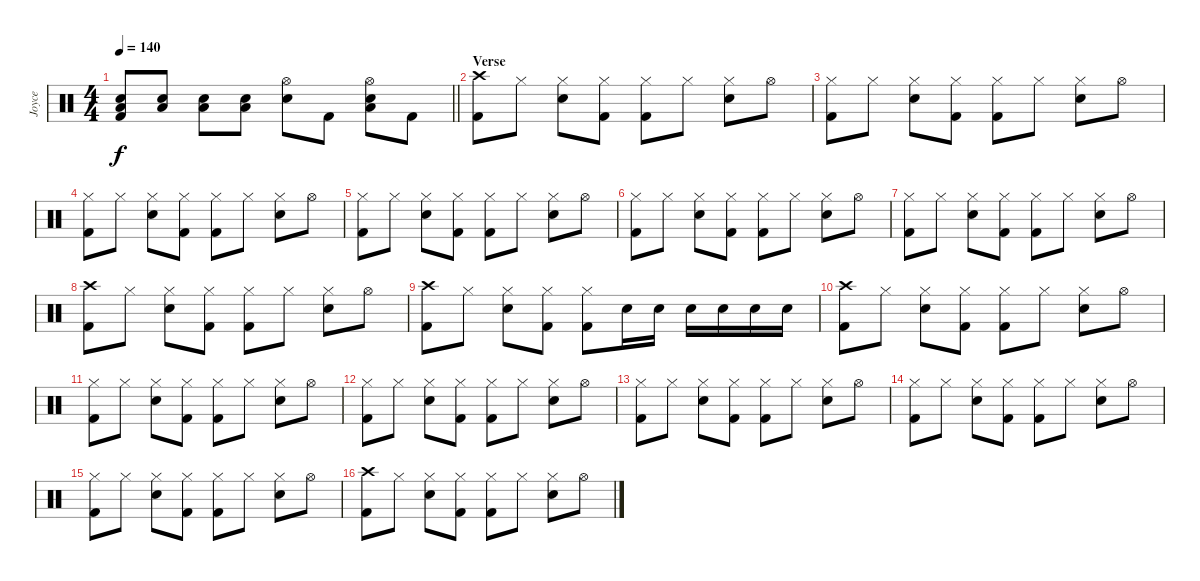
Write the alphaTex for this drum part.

\track ("Joyce" "Joyce") {instrument percussion}
\staff {score}
\articulation defaults
\ts (4 4)
\tempo 140
\clef neutral
\barLineRight lightlight
\ks c
("Low Tom (hit)" "Snare (hit) 2" "Kick (hit) 2").8{dy f} ("Low Tom (hit)" "Snare (hit) 2").8 ("Low Tom (hit)" "Snare (hit) 2").8 ("Low Tom (hit)" "Snare (hit) 2").8 ("Hi-Hat (open)" "Snare (hit) 2").8 "Kick (hit) 2".8 ("Hi-Hat (open)" "Low Tom (hit)" "Snare (hit) 2").8 "Kick (hit) 2".8 |
\section ("" "Verse")
("Crash high (hit)" "Kick (hit) 2").8 "Hi-Hat (closed)".8 ("Hi-Hat (closed)" "Snare (hit) 2").8 ("Hi-Hat (closed)" "Kick (hit) 2").8 ("Hi-Hat (closed)" "Kick (hit) 2").8 "Hi-Hat (closed)".8 ("Hi-Hat (closed)" "Snare (hit) 2").8 "Hi-Hat (open)".8 |
("Hi-Hat (closed)" "Kick (hit) 2").8 "Hi-Hat (closed)".8 ("Hi-Hat (closed)" "Snare (hit) 2").8 ("Hi-Hat (closed)" "Kick (hit) 2").8 ("Hi-Hat (closed)" "Kick (hit) 2").8 "Hi-Hat (closed)".8 ("Hi-Hat (closed)" "Snare (hit) 2").8 "Hi-Hat (open)".8 |
("Hi-Hat (closed)" "Kick (hit) 2").8 "Hi-Hat (closed)".8 ("Hi-Hat (closed)" "Snare (hit) 2").8 ("Hi-Hat (closed)" "Kick (hit) 2").8 ("Hi-Hat (closed)" "Kick (hit) 2").8 "Hi-Hat (closed)".8 ("Hi-Hat (closed)" "Snare (hit) 2").8 "Hi-Hat (open)".8 |
("Hi-Hat (closed)" "Kick (hit) 2").8 "Hi-Hat (closed)".8 ("Hi-Hat (closed)" "Snare (hit) 2").8 ("Hi-Hat (closed)" "Kick (hit) 2").8 ("Hi-Hat (closed)" "Kick (hit) 2").8 "Hi-Hat (closed)".8 ("Hi-Hat (closed)" "Snare (hit) 2").8 "Hi-Hat (open)".8 |
("Hi-Hat (closed)" "Kick (hit) 2").8 "Hi-Hat (closed)".8 ("Hi-Hat (closed)" "Snare (hit) 2").8 ("Hi-Hat (closed)" "Kick (hit) 2").8 ("Hi-Hat (closed)" "Kick (hit) 2").8 "Hi-Hat (closed)".8 ("Hi-Hat (closed)" "Snare (hit) 2").8 "Hi-Hat (open)".8 |
("Hi-Hat (closed)" "Kick (hit) 2").8 "Hi-Hat (closed)".8 ("Hi-Hat (closed)" "Snare (hit) 2").8 ("Hi-Hat (closed)" "Kick (hit) 2").8 ("Hi-Hat (closed)" "Kick (hit) 2").8 "Hi-Hat (closed)".8 ("Hi-Hat (closed)" "Snare (hit) 2").8 "Hi-Hat (open)".8 |
("Crash high (hit)" "Kick (hit) 2").8 "Hi-Hat (closed)".8 ("Hi-Hat (closed)" "Snare (hit) 2").8 ("Hi-Hat (closed)" "Kick (hit) 2").8 ("Hi-Hat (closed)" "Kick (hit) 2").8 "Hi-Hat (closed)".8 ("Hi-Hat (closed)" "Snare (hit) 2").8 "Hi-Hat (open)".8 |
("Crash high (hit)" "Kick (hit) 2").8 "Hi-Hat (closed)".8 ("Hi-Hat (closed)" "Snare (hit) 2").8 ("Hi-Hat (closed)" "Kick (hit) 2").8 ("Hi-Hat (closed)" "Kick (hit) 2").8 "Snare (hit) 2".16 "Snare (hit) 2".16 "Snare (hit) 2".16 "Snare (hit) 2".16 "Snare (hit) 2".16 "Snare (hit) 2".16 |
("Crash high (hit)" "Kick (hit) 2").8 "Hi-Hat (closed)".8 ("Hi-Hat (closed)" "Snare (hit) 2").8 ("Hi-Hat (closed)" "Kick (hit) 2").8 ("Hi-Hat (closed)" "Kick (hit) 2").8 "Hi-Hat (closed)".8 ("Hi-Hat (closed)" "Snare (hit) 2").8 "Hi-Hat (open)".8 |
("Hi-Hat (closed)" "Kick (hit) 2").8 "Hi-Hat (closed)".8 ("Hi-Hat (closed)" "Snare (hit) 2").8 ("Hi-Hat (closed)" "Kick (hit) 2").8 ("Hi-Hat (closed)" "Kick (hit) 2").8 "Hi-Hat (closed)".8 ("Hi-Hat (closed)" "Snare (hit) 2").8 "Hi-Hat (open)".8 |
("Hi-Hat (closed)" "Kick (hit) 2").8 "Hi-Hat (closed)".8 ("Hi-Hat (closed)" "Snare (hit) 2").8 ("Hi-Hat (closed)" "Kick (hit) 2").8 ("Hi-Hat (closed)" "Kick (hit) 2").8 "Hi-Hat (closed)".8 ("Hi-Hat (closed)" "Snare (hit) 2").8 "Hi-Hat (open)".8 |
("Hi-Hat (closed)" "Kick (hit) 2").8 "Hi-Hat (closed)".8 ("Hi-Hat (closed)" "Snare (hit) 2").8 ("Hi-Hat (closed)" "Kick (hit) 2").8 ("Hi-Hat (closed)" "Kick (hit) 2").8 "Hi-Hat (closed)".8 ("Hi-Hat (closed)" "Snare (hit) 2").8 "Hi-Hat (open)".8 |
("Hi-Hat (closed)" "Kick (hit) 2").8 "Hi-Hat (closed)".8 ("Hi-Hat (closed)" "Snare (hit) 2").8 ("Hi-Hat (closed)" "Kick (hit) 2").8 ("Hi-Hat (closed)" "Kick (hit) 2").8 "Hi-Hat (closed)".8 ("Hi-Hat (closed)" "Snare (hit) 2").8 "Hi-Hat (open)".8 |
("Hi-Hat (closed)" "Kick (hit) 2").8 "Hi-Hat (closed)".8 ("Hi-Hat (closed)" "Snare (hit) 2").8 ("Hi-Hat (closed)" "Kick (hit) 2").8 ("Hi-Hat (closed)" "Kick (hit) 2").8 "Hi-Hat (closed)".8 ("Hi-Hat (closed)" "Snare (hit) 2").8 "Hi-Hat (open)".8 |
("Crash high (hit)" "Kick (hit) 2").8 "Hi-Hat (closed)".8 ("Hi-Hat (closed)" "Snare (hit) 2").8 ("Hi-Hat (closed)" "Kick (hit) 2").8 ("Hi-Hat (closed)" "Kick (hit) 2").8 "Hi-Hat (closed)".8 ("Hi-Hat (closed)" "Snare (hit) 2").8 "Hi-Hat (open)".8
